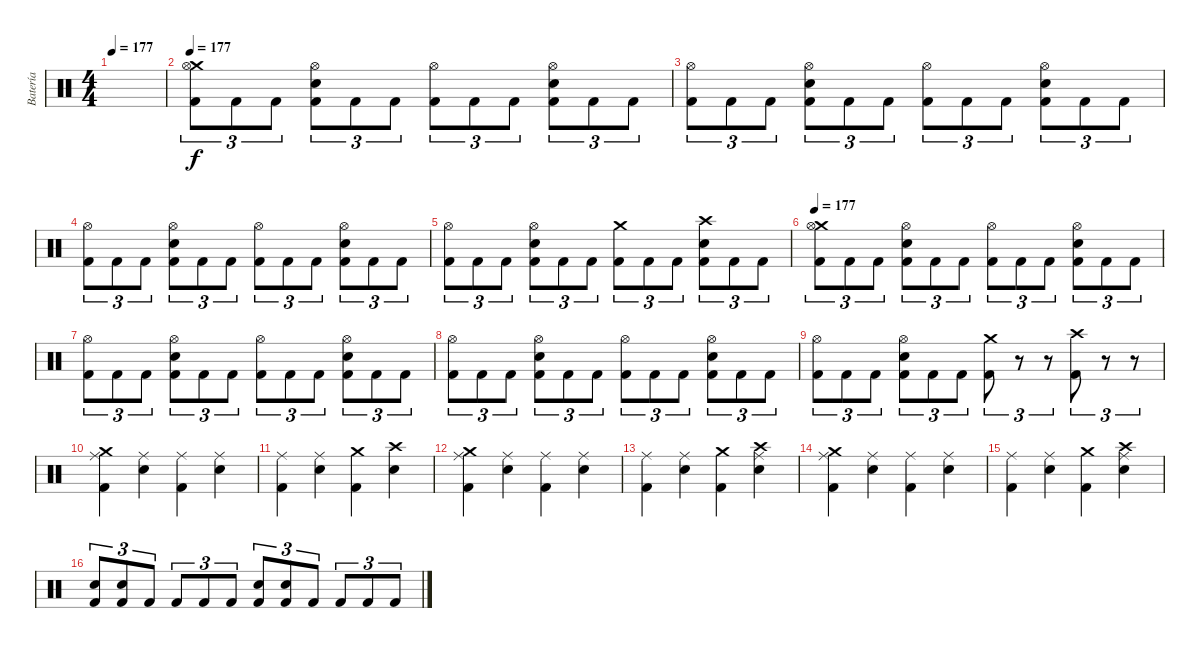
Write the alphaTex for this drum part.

\track ("Batería" "Batería") {instrument percussion}
\staff {score}
\articulation defaults
\ts (4 4)
\tempo 177
\tempo 150
\tempo 177
\clef neutral
\ks c
|
\tempo 177
("Crash medium (hit)" "Hi-Hat (open)" "Kick (hit) 2").8{tu (3 2)} "Kick (hit) 2".8{tu (3 2)} "Kick (hit) 2".8{tu (3 2)} ("Hi-Hat (open)" "Snare (hit) 2" "Kick (hit) 2").8{tu (3 2)} "Kick (hit) 2".8{tu (3 2)} "Kick (hit) 2".8{tu (3 2)} ("Hi-Hat (open)" "Kick (hit) 2").8{tu (3 2)} "Kick (hit) 2".8{tu (3 2)} "Kick (hit) 2".8{tu (3 2)} ("Hi-Hat (open)" "Snare (hit) 2" "Kick (hit) 2").8{tu (3 2)} "Kick (hit) 2".8{tu (3 2)} "Kick (hit) 2".8{tu (3 2)} |
("Hi-Hat (open)" "Kick (hit) 2").8{tu (3 2)} "Kick (hit) 2".8{tu (3 2)} "Kick (hit) 2".8{tu (3 2)} ("Hi-Hat (open)" "Snare (hit) 2" "Kick (hit) 2").8{tu (3 2)} "Kick (hit) 2".8{tu (3 2)} "Kick (hit) 2".8{tu (3 2)} ("Hi-Hat (open)" "Kick (hit) 2").8{tu (3 2)} "Kick (hit) 2".8{tu (3 2)} "Kick (hit) 2".8{tu (3 2)} ("Hi-Hat (open)" "Snare (hit) 2" "Kick (hit) 2").8{tu (3 2)} "Kick (hit) 2".8{tu (3 2)} "Kick (hit) 2".8{tu (3 2)} |
("Hi-Hat (open)" "Kick (hit) 2").8{tu (3 2)} "Kick (hit) 2".8{tu (3 2)} "Kick (hit) 2".8{tu (3 2)} ("Hi-Hat (open)" "Snare (hit) 2" "Kick (hit) 2").8{tu (3 2)} "Kick (hit) 2".8{tu (3 2)} "Kick (hit) 2".8{tu (3 2)} ("Hi-Hat (open)" "Kick (hit) 2").8{tu (3 2)} "Kick (hit) 2".8{tu (3 2)} "Kick (hit) 2".8{tu (3 2)} ("Hi-Hat (open)" "Snare (hit) 2" "Kick (hit) 2").8{tu (3 2)} "Kick (hit) 2".8{tu (3 2)} "Kick (hit) 2".8{tu (3 2)} |
("Hi-Hat (open)" "Kick (hit) 2").8{tu (3 2)} "Kick (hit) 2".8{tu (3 2)} "Kick (hit) 2".8{tu (3 2)} ("Hi-Hat (open)" "Snare (hit) 2" "Kick (hit) 2").8{tu (3 2)} "Kick (hit) 2".8{tu (3 2)} "Kick (hit) 2".8{tu (3 2)} ("Crash medium (hit)" "Kick (hit) 2").8{tu (3 2)} "Kick (hit) 2".8{tu (3 2)} "Kick (hit) 2".8{tu (3 2)} ("Crash high (hit)" "Snare (hit) 2" "Kick (hit) 2").8{tu (3 2)} "Kick (hit) 2".8{tu (3 2)} "Kick (hit) 2".8{tu (3 2)} |
\tempo 177
("Crash medium (hit)" "Hi-Hat (open)" "Kick (hit) 2").8{tu (3 2)} "Kick (hit) 2".8{tu (3 2)} "Kick (hit) 2".8{tu (3 2)} ("Hi-Hat (open)" "Snare (hit) 2" "Kick (hit) 2").8{tu (3 2)} "Kick (hit) 2".8{tu (3 2)} "Kick (hit) 2".8{tu (3 2)} ("Hi-Hat (open)" "Kick (hit) 2").8{tu (3 2)} "Kick (hit) 2".8{tu (3 2)} "Kick (hit) 2".8{tu (3 2)} ("Hi-Hat (open)" "Snare (hit) 2" "Kick (hit) 2").8{tu (3 2)} "Kick (hit) 2".8{tu (3 2)} "Kick (hit) 2".8{tu (3 2)} |
("Hi-Hat (open)" "Kick (hit) 2").8{tu (3 2)} "Kick (hit) 2".8{tu (3 2)} "Kick (hit) 2".8{tu (3 2)} ("Hi-Hat (open)" "Snare (hit) 2" "Kick (hit) 2").8{tu (3 2)} "Kick (hit) 2".8{tu (3 2)} "Kick (hit) 2".8{tu (3 2)} ("Hi-Hat (open)" "Kick (hit) 2").8{tu (3 2)} "Kick (hit) 2".8{tu (3 2)} "Kick (hit) 2".8{tu (3 2)} ("Hi-Hat (open)" "Snare (hit) 2" "Kick (hit) 2").8{tu (3 2)} "Kick (hit) 2".8{tu (3 2)} "Kick (hit) 2".8{tu (3 2)} |
("Hi-Hat (open)" "Kick (hit) 2").8{tu (3 2)} "Kick (hit) 2".8{tu (3 2)} "Kick (hit) 2".8{tu (3 2)} ("Hi-Hat (open)" "Snare (hit) 2" "Kick (hit) 2").8{tu (3 2)} "Kick (hit) 2".8{tu (3 2)} "Kick (hit) 2".8{tu (3 2)} ("Hi-Hat (open)" "Kick (hit) 2").8{tu (3 2)} "Kick (hit) 2".8{tu (3 2)} "Kick (hit) 2".8{tu (3 2)} ("Hi-Hat (open)" "Snare (hit) 2" "Kick (hit) 2").8{tu (3 2)} "Kick (hit) 2".8{tu (3 2)} "Kick (hit) 2".8{tu (3 2)} |
("Hi-Hat (open)" "Kick (hit) 2").8{tu (3 2)} "Kick (hit) 2".8{tu (3 2)} "Kick (hit) 2".8{tu (3 2)} ("Hi-Hat (open)" "Snare (hit) 2" "Kick (hit) 2").8{tu (3 2)} "Kick (hit) 2".8{tu (3 2)} "Kick (hit) 2".8{tu (3 2)} ("Crash medium (hit)" "Kick (hit) 2").8{tu (3 2)} r.8{tu (3 2)} r.8{tu (3 2)} ("Crash high (hit)" "Kick (hit) 2").8{tu (3 2)} r.8{tu (3 2)} r.8{tu (3 2)} |
("Crash medium (hit)" "Ride (middle)" "Kick (hit) 2").4 ("Ride (middle)" "Snare (hit) 2").4 ("Ride (middle)" "Kick (hit) 2").4 ("Ride (middle)" "Snare (hit) 2").4 |
("Ride (middle)" "Kick (hit) 2").4 ("Ride (middle)" "Snare (hit) 2").4 ("Crash medium (hit)" "Kick (hit) 2").4 ("Crash high (hit)" "Snare (hit) 2").4 |
("Crash medium (hit)" "Ride (middle)" "Kick (hit) 2").4 ("Ride (middle)" "Snare (hit) 2").4 ("Ride (middle)" "Kick (hit) 2").4 ("Ride (middle)" "Snare (hit) 2").4 |
("Ride (middle)" "Kick (hit) 2").4 ("Ride (middle)" "Snare (hit) 2").4 ("Crash medium (hit)" "Kick (hit) 2").4 ("Crash high (hit)" "Ride (middle)" "Snare (hit) 2").4 |
("Crash medium (hit)" "Ride (middle)" "Kick (hit) 2").4 ("Ride (middle)" "Snare (hit) 2").4 ("Ride (middle)" "Kick (hit) 2").4 ("Ride (middle)" "Snare (hit) 2").4 |
("Ride (middle)" "Kick (hit) 2").4 ("Ride (middle)" "Snare (hit) 2").4 ("Crash medium (hit)" "Kick (hit) 2").4 ("Crash high (hit)" "Ride (middle)" "Snare (hit) 2").4 |
("Snare (hit) 2" "Kick (hit) 2").8{tu (3 2)} ("Snare (hit) 2" "Kick (hit) 2").8{tu (3 2)} "Kick (hit) 2".8{tu (3 2)} "Kick (hit) 2".8{tu (3 2)} "Kick (hit) 2".8{tu (3 2)} "Kick (hit) 2".8{tu (3 2)} ("Snare (hit) 2" "Kick (hit) 2").8{tu (3 2)} ("Snare (hit) 2" "Kick (hit) 2").8{tu (3 2)} "Kick (hit) 2".8{tu (3 2)} "Kick (hit) 2".8{tu (3 2)} "Kick (hit) 2".8{tu (3 2)} "Kick (hit) 2".8{tu (3 2)}
